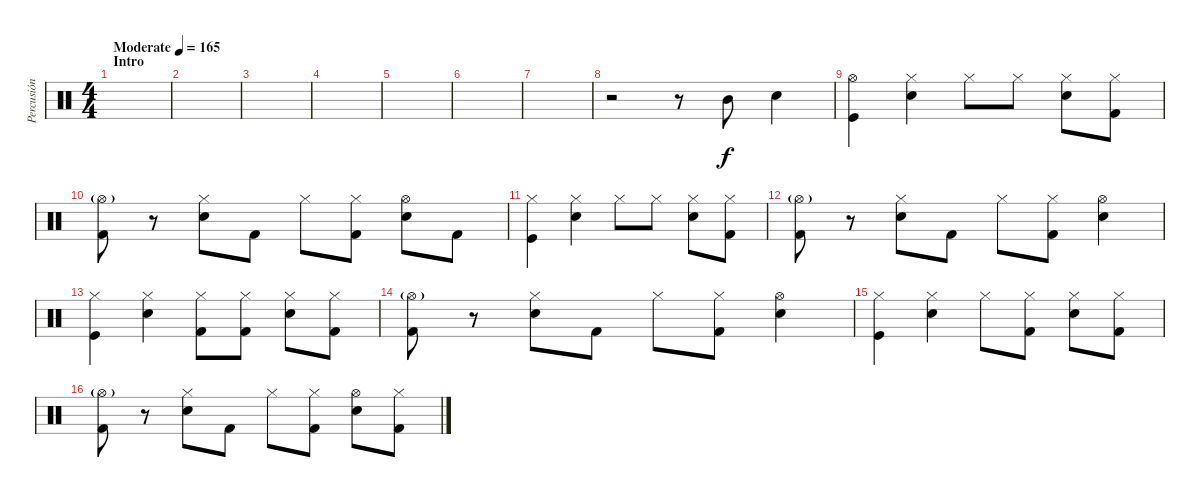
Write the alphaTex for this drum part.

\track ("Percusión" "Percusión") {instrument percussion}
\staff {score}
\articulation defaults
\ts (4 4)
\section ("" "Intro")
\tempo (165 "Moderate")
\clef neutral
\ks c
|
|
|
|
|
|
|
r.2 r.8 "Mid Tom (hit)".8 "Electric Snare (hit)".4 |
("Kick (hit)" "Hi-Hat (open)").4 ("Electric Snare (hit)" "Hi-Hat (closed)").4 "Hi-Hat (closed)".8 "Hi-Hat (closed)".8 ("Electric Snare (hit)" "Hi-Hat (closed)").8 ("Kick (hit) 2" "Hi-Hat (closed)").8 |
("Kick (hit) 2" "Hi-Hat (open)"{g}).8 r.8 ("Electric Snare (hit)" "Hi-Hat (closed)").8 "Kick (hit) 2".8 "Hi-Hat (closed)".8 ("Kick (hit) 2" "Hi-Hat (closed)").8 ("Electric Snare (hit)" "Hi-Hat (open)").8 "Kick (hit) 2".8 |
("Kick (hit)" "Hi-Hat (closed)").4 ("Electric Snare (hit)" "Hi-Hat (closed)").4 "Hi-Hat (closed)".8 "Hi-Hat (closed)".8 ("Electric Snare (hit)" "Hi-Hat (closed)").8 ("Kick (hit) 2" "Hi-Hat (closed)").8 |
("Kick (hit) 2" "Hi-Hat (open)"{g}).8 r.8 ("Electric Snare (hit)" "Hi-Hat (closed)").8 "Kick (hit) 2".8 "Hi-Hat (closed)".8 ("Kick (hit) 2" "Hi-Hat (closed)").8 ("Electric Snare (hit)" "Hi-Hat (open)").4 |
("Kick (hit)" "Hi-Hat (closed)").4 ("Electric Snare (hit)" "Hi-Hat (closed)").4 ("Kick (hit) 2" "Hi-Hat (closed)").8 ("Kick (hit) 2" "Hi-Hat (closed)").8 ("Electric Snare (hit)" "Hi-Hat (closed)").8 ("Kick (hit) 2" "Hi-Hat (closed)").8 |
("Kick (hit) 2" "Hi-Hat (open)"{g}).8 r.8 ("Electric Snare (hit)" "Hi-Hat (closed)").8 "Kick (hit) 2".8 "Hi-Hat (closed)".8 ("Kick (hit) 2" "Hi-Hat (closed)").8 ("Electric Snare (hit)" "Hi-Hat (open)").4 |
("Kick (hit)" "Hi-Hat (closed)").4 ("Electric Snare (hit)" "Hi-Hat (closed)").4 "Hi-Hat (closed)".8 ("Kick (hit) 2" "Hi-Hat (closed)").8 ("Electric Snare (hit)" "Hi-Hat (closed)").8 ("Kick (hit) 2" "Hi-Hat (closed)").8 |
("Kick (hit) 2" "Hi-Hat (open)"{g}).8 r.8 ("Electric Snare (hit)" "Hi-Hat (closed)").8 "Kick (hit) 2".8 "Hi-Hat (closed)".8 ("Kick (hit) 2" "Hi-Hat (closed)").8 ("Electric Snare (hit)" "Hi-Hat (open)").8 ("Kick (hit) 2" "Hi-Hat (closed)").8
